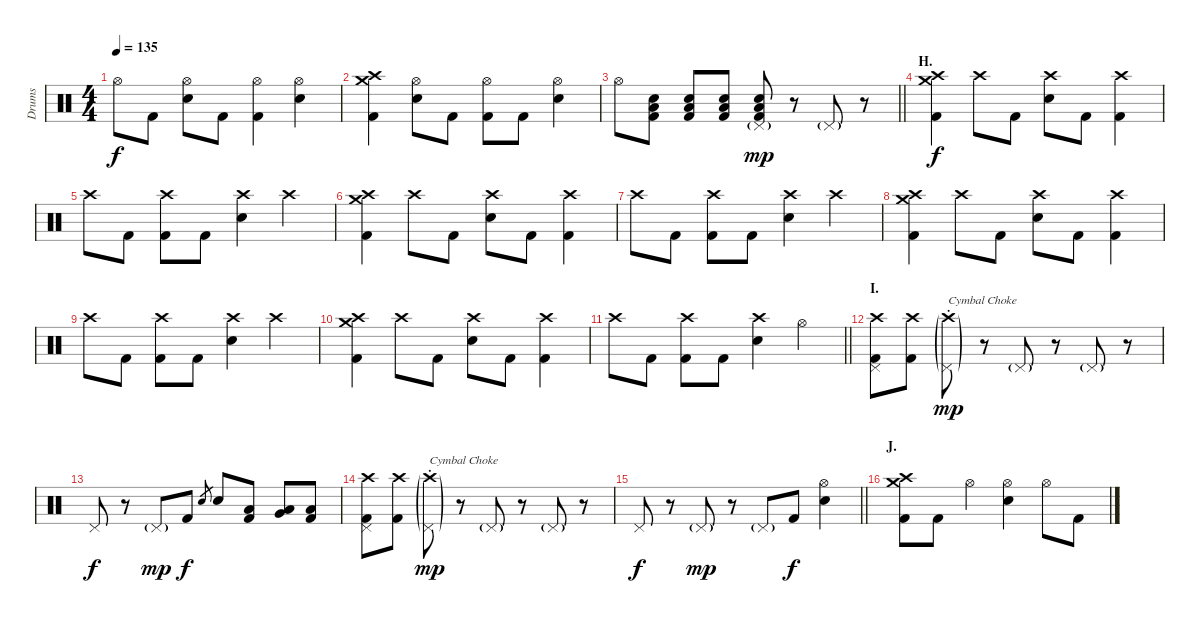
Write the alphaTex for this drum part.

\track ("Drums" "Drums") {instrument percussion}
\staff {score}
\articulation defaults
\ts (4 4)
\tempo 135
\clef neutral
\ks c "Hi-Hat (open)".8{dy f} "Kick (hit) 2".8
("Hi-Hat (open)" "Electric Snare (hit)").8 "Kick (hit) 2".8 ("Hi-Hat (open)" "Kick (hit) 2").4 ("Hi-Hat (open)" "Electric Snare (hit)").4 |
("Crash medium (hit)" "Crash high (hit)" "Kick (hit) 2").4 ("Hi-Hat (open)" "Electric Snare (hit)").8 "Kick (hit) 2".8 ("Hi-Hat (open)" "Kick (hit) 2").8 "Kick (hit) 2".8 ("Hi-Hat (open)" "Electric Snare (hit)").4 |
\barLineRight lightlight "Hi-Hat (open)".8
("Electric Snare (hit)" "Low Floor Tom (hit)" "Kick (hit) 2").8 ("Electric Snare (hit)" "Low Floor Tom (hit)" "Kick (hit) 2").8 ("Electric Snare (hit)" "Low Floor Tom (hit)" "Kick (hit) 2").8 ("Pedal Hi-Hat (hit)"{g} "Electric Snare (hit)" "Low Floor Tom (hit)" "Kick (hit) 2").8{dy mp} r.8 "Pedal Hi-Hat (hit)"{g}.8 r.8 |
\section ("" "H.")
("Crash medium (hit)" "Crash high (hit)" "Kick (hit) 2").4{dy f} "Crash high (hit)".8 "Kick (hit) 2".8 ("Crash high (hit)" "Electric Snare (hit)").8 "Kick (hit) 2".8 ("Crash high (hit)" "Kick (hit) 2").4 |
"Crash high (hit)".8 "Kick (hit) 2".8 ("Crash high (hit)" "Kick (hit) 2").8 "Kick (hit) 2".8 ("Crash high (hit)" "Electric Snare (hit)").4 "Crash high (hit)".4 |
("Crash medium (hit)" "Crash high (hit)" "Kick (hit) 2").4 "Crash high (hit)".8 "Kick (hit) 2".8 ("Crash high (hit)" "Electric Snare (hit)").8 "Kick (hit) 2".8 ("Crash high (hit)" "Kick (hit) 2").4 |
"Crash high (hit)".8 "Kick (hit) 2".8 ("Crash high (hit)" "Kick (hit) 2").8 "Kick (hit) 2".8 ("Crash high (hit)" "Electric Snare (hit)").4 "Crash high (hit)".4 |
("Crash medium (hit)" "Crash high (hit)" "Kick (hit) 2").4 "Crash high (hit)".8 "Kick (hit) 2".8 ("Crash high (hit)" "Electric Snare (hit)").8 "Kick (hit) 2".8 ("Crash high (hit)" "Kick (hit) 2").4 |
"Crash high (hit)".8 "Kick (hit) 2".8 ("Crash high (hit)" "Kick (hit) 2").8 "Kick (hit) 2".8 ("Crash high (hit)" "Electric Snare (hit)").4 "Crash high (hit)".4 |
("Crash medium (hit)" "Crash high (hit)" "Kick (hit) 2").4 "Crash high (hit)".8 "Kick (hit) 2".8 ("Crash high (hit)" "Electric Snare (hit)").8 "Kick (hit) 2".8 ("Crash high (hit)" "Kick (hit) 2").4 |
\barLineRight lightlight "Crash high (hit)".8 "Kick (hit) 2".8
("Crash high (hit)" "Kick (hit) 2").8 "Kick (hit) 2".8 ("Crash high (hit)" "Electric Snare (hit)").4 "Hi-Hat (open)".4 |
\section ("" "I.")
("Crash high (hit)" "Pedal Hi-Hat (hit)" "Kick (hit) 2").8 ("Crash high (hit)" "Kick (hit) 2").8 ("Crash high (hit)"{g st} "Pedal Hi-Hat (hit)"{g}).8{txt "Cymbal Choke" dy mp} r.8 "Pedal Hi-Hat (hit)"{g}.8 r.8 "Pedal Hi-Hat (hit)"{g}.8 r.8 |
"Pedal Hi-Hat (hit)".8{dy f} r.8 "Pedal Hi-Hat (hit)"{g}.8{dy mp} "Kick (hit) 2".8{dy f} "Electric Snare (hit)".8{gr} "Electric Snare (hit)".8 ("Low Floor Tom (hit)" "Kick (hit) 2").8 ("Low Tom (hit)" "Very Low Tom (hit)").8{bu 120} ("Low Floor Tom (hit)" "Kick (hit) 2").8 |
("Crash high (hit)" "Pedal Hi-Hat (hit)" "Kick (hit) 2").8 ("Crash high (hit)" "Kick (hit) 2").8 ("Crash high (hit)"{g st} "Pedal Hi-Hat (hit)"{g}).8{txt "Cymbal Choke" dy mp} r.8 "Pedal Hi-Hat (hit)"{g}.8 r.8 "Pedal Hi-Hat (hit)"{g}.8 r.8 |
\barLineRight lightlight "Pedal Hi-Hat (hit)".8{dy f}
r.8 "Pedal Hi-Hat (hit)"{g}.8{dy mp} r.8 "Pedal Hi-Hat (hit)"{g}.8 "Kick (hit) 2".8{dy f} ("Hi-Hat (open)" "Electric Snare (hit)").4 |
\section ("" "J.")
("Crash medium (hit)" "Crash high (hit)" "Kick (hit) 2").8 "Kick (hit) 2".8 "Hi-Hat (open)".4 ("Hi-Hat (open)" "Electric Snare (hit)").4 "Hi-Hat (open)".8 "Kick (hit) 2".8
